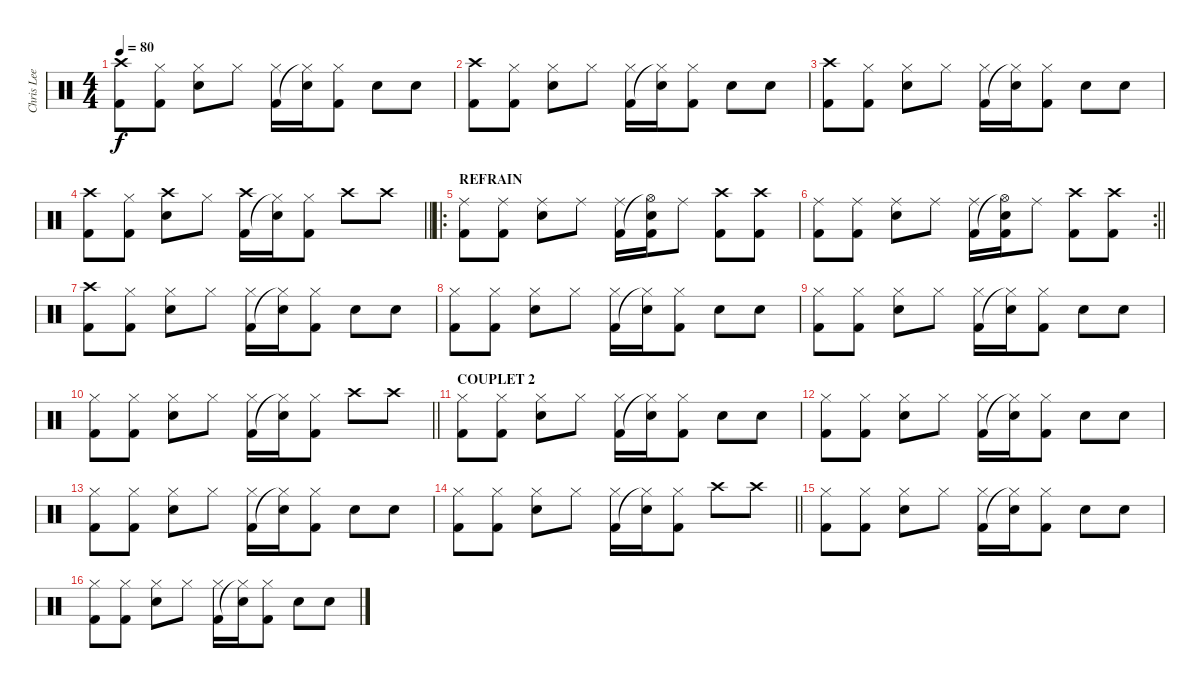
\track ("Chris Lee" "Chris Lee") {instrument percussion}
\staff {score}
\articulation defaults
\ts (4 4)
\tempo 80
\clef neutral
\ks c
("Crash high (hit)" "Kick (hit) 2").8{dy f} ("Hi-Hat (closed)" "Kick (hit) 2").8 ("Snare (hit) 2" "Hi-Hat (closed)").8 "Hi-Hat (closed)".8 ("Hi-Hat (closed)" "Kick (hit) 2").16 ("Snare (hit) 2" "Hi-Hat (closed)"{t}).16 ("Hi-Hat (closed)" "Kick (hit) 2").8 "Snare (hit) 2".8 "Snare (hit) 2".8 |
("Crash high (hit)" "Kick (hit) 2").8 ("Hi-Hat (closed)" "Kick (hit) 2").8 ("Snare (hit) 2" "Hi-Hat (closed)").8 "Hi-Hat (closed)".8 ("Hi-Hat (closed)" "Kick (hit) 2").16 ("Snare (hit) 2" "Hi-Hat (closed)"{t}).16 ("Hi-Hat (closed)" "Kick (hit) 2").8 "Snare (hit) 2".8 "Snare (hit) 2".8 |
("Crash high (hit)" "Kick (hit) 2").8 ("Hi-Hat (closed)" "Kick (hit) 2").8 ("Snare (hit) 2" "Hi-Hat (closed)").8 "Hi-Hat (closed)".8 ("Hi-Hat (closed)" "Kick (hit) 2").16 ("Snare (hit) 2" "Hi-Hat (closed)"{t}).16 ("Hi-Hat (closed)" "Kick (hit) 2").8 "Snare (hit) 2".8 "Snare (hit) 2".8 |
\barLineRight lightlight
("Crash high (hit)" "Kick (hit) 2").8 ("Hi-Hat (closed)" "Kick (hit) 2").8 ("Crash high (hit)" "Snare (hit) 2").8 "Hi-Hat (closed)".8 ("Crash high (hit)" "Kick (hit) 2").16 ("Snare (hit) 2" "Hi-Hat (closed)"{t}).16 ("Hi-Hat (closed)" "Kick (hit) 2").8 "Crash high (hit)".8 "Crash high (hit)".8 |
\ro
\section ("" "REFRAIN")
("Ride (middle)" "Kick (hit) 2").8 ("Ride (middle)" "Kick (hit) 2").8 ("Snare (hit) 2" "Ride (middle)").8 "Ride (middle)".8 ("Ride (middle)" "Kick (hit) 2").16 ("Snare (hit) 2" "Hi-Hat (open)"{t} "Kick (hit) 2").16 "Ride (middle)".8 ("Crash high (hit)" "Kick (hit) 2").8 ("Crash high (hit)" "Kick (hit) 2").8 |
\rc 2
\barLineRight lightlight
("Ride (middle)" "Kick (hit) 2").8 ("Ride (middle)" "Kick (hit) 2").8 ("Snare (hit) 2" "Ride (middle)").8 "Ride (middle)".8 ("Ride (middle)" "Kick (hit) 2").16 ("Snare (hit) 2" "Hi-Hat (open)"{t} "Kick (hit) 2").16 "Ride (middle)".8 ("Crash high (hit)" "Kick (hit) 2").8 ("Crash high (hit)" "Kick (hit) 2").8 |
("Crash high (hit)" "Kick (hit) 2").8 ("Hi-Hat (closed)" "Kick (hit) 2").8 ("Snare (hit) 2" "Hi-Hat (closed)").8 "Hi-Hat (closed)".8 ("Hi-Hat (closed)" "Kick (hit) 2").16 ("Snare (hit) 2" "Hi-Hat (closed)"{t}).16 ("Hi-Hat (closed)" "Kick (hit) 2").8 "Snare (hit) 2".8 "Snare (hit) 2".8 |
("Hi-Hat (closed)" "Kick (hit) 2").8 ("Hi-Hat (closed)" "Kick (hit) 2").8 ("Snare (hit) 2" "Hi-Hat (closed)").8 "Hi-Hat (closed)".8 ("Hi-Hat (closed)" "Kick (hit) 2").16 ("Snare (hit) 2" "Hi-Hat (closed)"{t}).16 ("Hi-Hat (closed)" "Kick (hit) 2").8 "Snare (hit) 2".8 "Snare (hit) 2".8 |
("Hi-Hat (closed)" "Kick (hit) 2").8 ("Hi-Hat (closed)" "Kick (hit) 2").8 ("Snare (hit) 2" "Hi-Hat (closed)").8 "Hi-Hat (closed)".8 ("Hi-Hat (closed)" "Kick (hit) 2").16 ("Snare (hit) 2" "Hi-Hat (closed)"{t}).16 ("Hi-Hat (closed)" "Kick (hit) 2").8 "Snare (hit) 2".8 "Snare (hit) 2".8 |
\barLineRight lightlight
("Hi-Hat (closed)" "Kick (hit) 2").8 ("Hi-Hat (closed)" "Kick (hit) 2").8 ("Snare (hit) 2" "Hi-Hat (closed)").8 "Hi-Hat (closed)".8 ("Hi-Hat (closed)" "Kick (hit) 2").16 ("Snare (hit) 2" "Hi-Hat (closed)"{t}).16 ("Hi-Hat (closed)" "Kick (hit) 2").8 "Crash high (hit)".8 "Crash high (hit)".8 |
\section ("" "COUPLET 2")
("Hi-Hat (closed)" "Kick (hit) 2").8 ("Hi-Hat (closed)" "Kick (hit) 2").8 ("Snare (hit) 2" "Hi-Hat (closed)").8 "Hi-Hat (closed)".8 ("Hi-Hat (closed)" "Kick (hit) 2").16 ("Snare (hit) 2" "Hi-Hat (closed)"{t}).16 ("Hi-Hat (closed)" "Kick (hit) 2").8 "Snare (hit) 2".8 "Snare (hit) 2".8 |
("Hi-Hat (closed)" "Kick (hit) 2").8 ("Hi-Hat (closed)" "Kick (hit) 2").8 ("Snare (hit) 2" "Hi-Hat (closed)").8 "Hi-Hat (closed)".8 ("Hi-Hat (closed)" "Kick (hit) 2").16 ("Snare (hit) 2" "Hi-Hat (closed)"{t}).16 ("Hi-Hat (closed)" "Kick (hit) 2").8 "Snare (hit) 2".8 "Snare (hit) 2".8 |
("Hi-Hat (closed)" "Kick (hit) 2").8 ("Hi-Hat (closed)" "Kick (hit) 2").8 ("Snare (hit) 2" "Hi-Hat (closed)").8 "Hi-Hat (closed)".8 ("Hi-Hat (closed)" "Kick (hit) 2").16 ("Snare (hit) 2" "Hi-Hat (closed)"{t}).16 ("Hi-Hat (closed)" "Kick (hit) 2").8 "Snare (hit) 2".8 "Snare (hit) 2".8 |
\barLineRight lightlight
("Hi-Hat (closed)" "Kick (hit) 2").8 ("Hi-Hat (closed)" "Kick (hit) 2").8 ("Snare (hit) 2" "Hi-Hat (closed)").8 "Hi-Hat (closed)".8 ("Hi-Hat (closed)" "Kick (hit) 2").16 ("Snare (hit) 2" "Hi-Hat (closed)"{t}).16 ("Hi-Hat (closed)" "Kick (hit) 2").8 "Crash high (hit)".8 "Crash high (hit)".8 |
("Hi-Hat (closed)" "Kick (hit) 2").8 ("Hi-Hat (closed)" "Kick (hit) 2").8 ("Snare (hit) 2" "Hi-Hat (closed)").8 "Hi-Hat (closed)".8 ("Hi-Hat (closed)" "Kick (hit) 2").16 ("Snare (hit) 2" "Hi-Hat (closed)"{t}).16 ("Hi-Hat (closed)" "Kick (hit) 2").8 "Snare (hit) 2".8 "Snare (hit) 2".8 |
("Hi-Hat (closed)" "Kick (hit) 2").8 ("Hi-Hat (closed)" "Kick (hit) 2").8 ("Snare (hit) 2" "Hi-Hat (closed)").8 "Hi-Hat (closed)".8 ("Hi-Hat (closed)" "Kick (hit) 2").16 ("Snare (hit) 2" "Hi-Hat (closed)"{t}).16 ("Hi-Hat (closed)" "Kick (hit) 2").8 "Snare (hit) 2".8 "Snare (hit) 2".8
